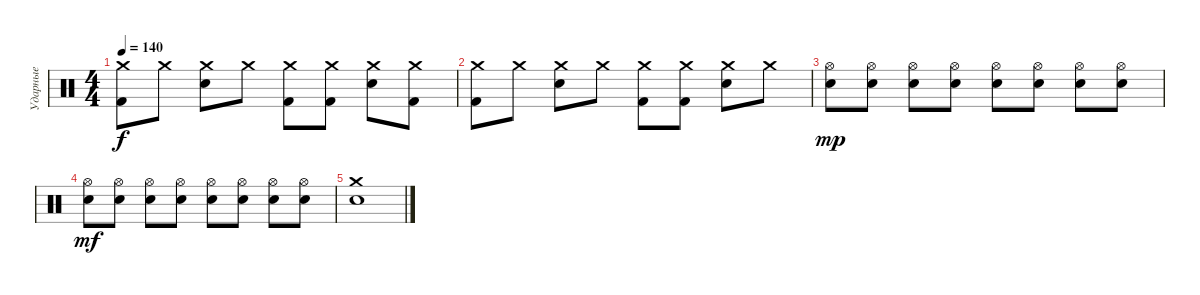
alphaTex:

\track ("Ударные" "Ударные") {instrument percussion}
\staff {score}
\articulation defaults
\ts (4 4)
\tempo 140
\clef neutral
\ks c
("Crash medium (hit)" "Kick (hit) 2").8{dy f} "Crash medium (hit)".8 ("Crash medium (hit)" "Electric Snare (hit)").8 "Crash medium (hit)".8 ("Crash medium (hit)" "Kick (hit) 2").8 ("Crash medium (hit)" "Kick (hit) 2").8 ("Crash medium (hit)" "Electric Snare (hit)").8 ("Crash medium (hit)" "Kick (hit) 2").8 |
("Crash medium (hit)" "Kick (hit) 2").8 "Crash medium (hit)".8 ("Crash medium (hit)" "Electric Snare (hit)").8 "Crash medium (hit)".8 ("Crash medium (hit)" "Kick (hit) 2").8 ("Crash medium (hit)" "Kick (hit) 2").8 ("Crash medium (hit)" "Electric Snare (hit)").8 "Crash medium (hit)".8 |
("Hi-Hat (open)" "Electric Snare (hit)").8{dy mp} ("Hi-Hat (open)" "Electric Snare (hit)").8 ("Hi-Hat (open)" "Electric Snare (hit)").8 ("Hi-Hat (open)" "Electric Snare (hit)").8 ("Hi-Hat (open)" "Electric Snare (hit)").8 ("Hi-Hat (open)" "Electric Snare (hit)").8 ("Hi-Hat (open)" "Electric Snare (hit)").8 ("Hi-Hat (open)" "Electric Snare (hit)").8 |
("Hi-Hat (open)" "Electric Snare (hit)").8{dy mf} ("Hi-Hat (open)" "Electric Snare (hit)").8 ("Hi-Hat (open)" "Electric Snare (hit)").8 ("Hi-Hat (open)" "Electric Snare (hit)").8 ("Hi-Hat (open)" "Electric Snare (hit)").8 ("Hi-Hat (open)" "Electric Snare (hit)").8 ("Hi-Hat (open)" "Electric Snare (hit)").8 ("Hi-Hat (open)" "Electric Snare (hit)").8 |
("Crash medium (hit)" "Electric Snare (hit)").1
